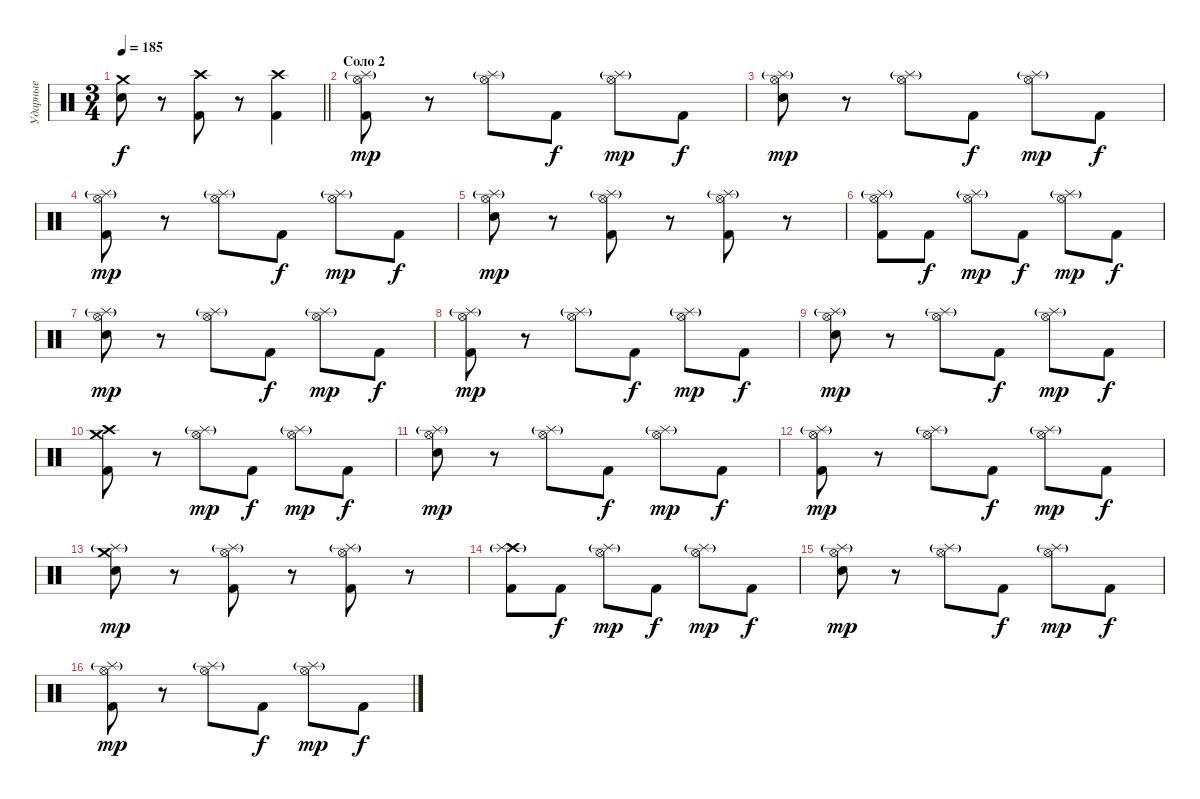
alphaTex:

\track ("Ударные" "Ударные") {instrument percussion}
\staff {score}
\articulation defaults
\ts (3 4)
\tempo 185
\clef neutral
\barLineRight lightlight
\ks c
("Crash medium (hit)" "Snare (hit) 2").8{dy f} r.8 ("Crash high (hit)" "Kick (hit) 2").8 r.8 ("Crash high (hit)" "Kick (hit) 2").4 |
\section ("" "Соло 2")
("Hi-Hat (open)" "Splash (hit)"{g} "Kick (hit) 2").8{dy mp} r.8 ("Hi-Hat (open)" "Splash (hit)"{g}).8 "Kick (hit) 2".8{dy f} ("Hi-Hat (open)" "Splash (hit)"{g}).8{dy mp} "Kick (hit) 2".8{dy f} |
("Hi-Hat (open)" "Splash (hit)"{g} "Snare (hit) 2").8{dy mp} r.8 ("Hi-Hat (open)" "Splash (hit)"{g}).8 "Kick (hit) 2".8{dy f} ("Hi-Hat (open)" "Splash (hit)"{g}).8{dy mp} "Kick (hit) 2".8{dy f} |
("Hi-Hat (open)" "Splash (hit)"{g} "Kick (hit) 2").8{dy mp} r.8 ("Hi-Hat (open)" "Splash (hit)"{g}).8 "Kick (hit) 2".8{dy f} ("Hi-Hat (open)" "Splash (hit)"{g}).8{dy mp} "Kick (hit) 2".8{dy f} |
("Hi-Hat (open)" "Splash (hit)"{g} "Snare (hit) 2").8{dy mp} r.8 ("Hi-Hat (open)" "Splash (hit)"{g} "Kick (hit) 2").8 r.8 ("Hi-Hat (open)" "Splash (hit)"{g} "Kick (hit) 2").8 r.8 |
("Hi-Hat (open)" "Splash (hit)"{g} "Kick (hit) 2").8 "Kick (hit) 2".8{dy f} ("Hi-Hat (open)" "Splash (hit)"{g}).8{dy mp} "Kick (hit) 2".8{dy f} ("Hi-Hat (open)" "Splash (hit)"{g}).8{dy mp} "Kick (hit) 2".8{dy f} |
("Hi-Hat (open)" "Splash (hit)"{g} "Snare (hit) 2").8{dy mp} r.8 ("Hi-Hat (open)" "Splash (hit)"{g}).8 "Kick (hit) 2".8{dy f} ("Hi-Hat (open)" "Splash (hit)"{g}).8{dy mp} "Kick (hit) 2".8{dy f} |
("Hi-Hat (open)" "Splash (hit)"{g} "Kick (hit) 2").8{dy mp} r.8 ("Hi-Hat (open)" "Splash (hit)"{g}).8 "Kick (hit) 2".8{dy f} ("Hi-Hat (open)" "Splash (hit)"{g}).8{dy mp} "Kick (hit) 2".8{dy f} |
("Hi-Hat (open)" "Splash (hit)"{g} "Snare (hit) 2").8{dy mp} r.8 ("Hi-Hat (open)" "Splash (hit)"{g}).8 "Kick (hit) 2".8{dy f} ("Hi-Hat (open)" "Splash (hit)"{g}).8{dy mp} "Kick (hit) 2".8{dy f} |
("Crash high (hit)" "Crash medium (hit)" "Kick (hit) 2").8 r.8 ("Hi-Hat (open)" "Splash (hit)"{g}).8{dy mp} "Kick (hit) 2".8{dy f} ("Hi-Hat (open)" "Splash (hit)"{g}).8{dy mp} "Kick (hit) 2".8{dy f} |
("Hi-Hat (open)" "Splash (hit)"{g} "Snare (hit) 2").8{dy mp} r.8 ("Hi-Hat (open)" "Splash (hit)"{g}).8 "Kick (hit) 2".8{dy f} ("Hi-Hat (open)" "Splash (hit)"{g}).8{dy mp} "Kick (hit) 2".8{dy f} |
("Hi-Hat (open)" "Splash (hit)"{g} "Kick (hit) 2").8{dy mp} r.8 ("Hi-Hat (open)" "Splash (hit)"{g}).8 "Kick (hit) 2".8{dy f} ("Hi-Hat (open)" "Splash (hit)"{g}).8{dy mp} "Kick (hit) 2".8{dy f} |
("Crash medium (hit)" "Splash (hit)"{g} "Snare (hit) 2").8{dy mp} r.8 ("Hi-Hat (open)" "Splash (hit)"{g} "Kick (hit) 2").8 r.8 ("Hi-Hat (open)" "Splash (hit)"{g} "Kick (hit) 2").8 r.8 |
("Crash high (hit)" "Splash (hit)"{g} "Kick (hit) 2").8 "Kick (hit) 2".8{dy f} ("Hi-Hat (open)" "Splash (hit)"{g}).8{dy mp} "Kick (hit) 2".8{dy f} ("Hi-Hat (open)" "Splash (hit)"{g}).8{dy mp} "Kick (hit) 2".8{dy f} |
("Hi-Hat (open)" "Splash (hit)"{g} "Snare (hit) 2").8{dy mp} r.8 ("Hi-Hat (open)" "Splash (hit)"{g}).8 "Kick (hit) 2".8{dy f} ("Hi-Hat (open)" "Splash (hit)"{g}).8{dy mp} "Kick (hit) 2".8{dy f} |
("Hi-Hat (open)" "Splash (hit)"{g} "Kick (hit) 2").8{dy mp} r.8 ("Hi-Hat (open)" "Splash (hit)"{g}).8 "Kick (hit) 2".8{dy f} ("Hi-Hat (open)" "Splash (hit)"{g}).8{dy mp} "Kick (hit) 2".8{dy f}
